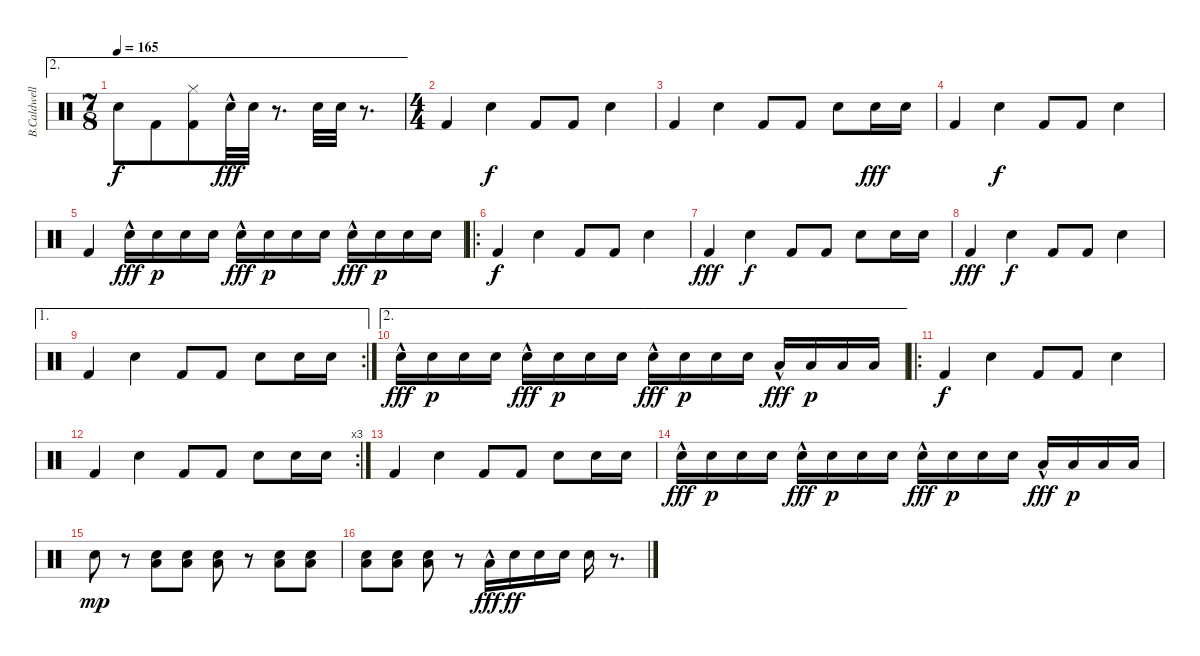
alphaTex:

\track ("B.Caldwell" "B.Caldwell") {instrument percussion}
\staff {score}
\articulation defaults
\ae 2
\ts (7 8)
\tempo 165
\clef neutral
\ks c "Snare (hit) 2".8{dy f} "Kick (hit) 2".8
("Hi-Hat (closed)" "Kick (hit) 2").8 "Snare (hit) 2"{hac}.32{dy fff} "Snare (hit) 2".32 r.8{d} "Snare (hit) 2".32 "Snare (hit) 2".32 r.8{d} |
\ts (4 4)
"Kick (hit) 2".4 "Snare (hit) 2".4{dy f} "Kick (hit) 2".8 "Kick (hit) 2".8 "Snare (hit) 2".4 |
"Kick (hit) 2".4 "Snare (hit) 2".4 "Kick (hit) 2".8 "Kick (hit) 2".8 "Snare (hit) 2".8 "Snare (hit) 2".16{dy fff} "Snare (hit) 2".16 |
"Kick (hit) 2".4 "Snare (hit) 2".4{dy f} "Kick (hit) 2".8 "Kick (hit) 2".8 "Snare (hit) 2".4 |
"Kick (hit) 2".4 "Snare (hit) 2"{hac}.16{dy fff} "Snare (hit) 2".16{dy p} "Snare (hit) 2".16 "Snare (hit) 2".16 "Snare (hit) 2"{hac}.16{dy fff} "Snare (hit) 2".16{dy p} "Snare (hit) 2".16 "Snare (hit) 2".16 "Snare (hit) 2"{hac}.16{dy fff} "Snare (hit) 2".16{dy p} "Snare (hit) 2".16 "Snare (hit) 2".16 |
\ro "Kick (hit) 2".4{dy f} "Snare (hit) 2".4 "Kick (hit) 2".8 "Kick (hit) 2".8 "Snare (hit) 2".4
|
"Kick (hit) 2".4{dy fff} "Snare (hit) 2".4{dy f} "Kick (hit) 2".8 "Kick (hit) 2".8 "Snare (hit) 2".8 "Snare (hit) 2".16 "Snare (hit) 2".16 |
"Kick (hit) 2".4{dy fff} "Snare (hit) 2".4{dy f} "Kick (hit) 2".8 "Kick (hit) 2".8 "Snare (hit) 2".4 |
\ae 1
\rc 2 "Kick (hit) 2".4 "Snare (hit) 2".4 "Kick (hit) 2".8 "Kick (hit) 2".8 "Snare (hit) 2".8 "Snare (hit) 2".16 "Snare (hit) 2".16
|
\ae 2 "Snare (hit) 2"{hac}.16{dy fff} "Snare (hit) 2".16{dy p} "Snare (hit) 2".16 "Snare (hit) 2".16 "Snare (hit) 2"{hac}.16{dy fff} "Snare (hit) 2".16{dy p} "Snare (hit) 2".16 "Snare (hit) 2".16 "Snare (hit) 2"{hac}.16{dy fff} "Snare (hit) 2".16{dy p} "Snare (hit) 2".16 "Snare (hit) 2".16 "Low Tom (hit)"{hac}.16{dy fff} "Low Tom (hit)".16{dy p} "Low Tom (hit)".16 "Low Tom (hit)".16
|
\ro "Kick (hit) 2".4{dy f} "Snare (hit) 2".4 "Kick (hit) 2".8 "Kick (hit) 2".8 "Snare (hit) 2".4
|
\rc 3 "Kick (hit) 2".4 "Snare (hit) 2".4 "Kick (hit) 2".8 "Kick (hit) 2".8 "Snare (hit) 2".8 "Snare (hit) 2".16 "Snare (hit) 2".16
|
"Kick (hit) 2".4 "Snare (hit) 2".4 "Kick (hit) 2".8 "Kick (hit) 2".8 "Snare (hit) 2".8 "Snare (hit) 2".16 "Snare (hit) 2".16 |
"Snare (hit) 2"{hac}.16{dy fff} "Snare (hit) 2".16{dy p} "Snare (hit) 2".16 "Snare (hit) 2".16 "Snare (hit) 2"{hac}.16{dy fff} "Snare (hit) 2".16{dy p} "Snare (hit) 2".16 "Snare (hit) 2".16 "Snare (hit) 2"{hac}.16{dy fff} "Snare (hit) 2".16{dy p} "Snare (hit) 2".16 "Snare (hit) 2".16 "Low Tom (hit)"{hac}.16{dy fff} "Low Tom (hit)".16{dy p} "Low Tom (hit)".16 "Low Tom (hit)".16 |
"Snare (hit) 2".8{dy mp} r.8 ("Low Floor Tom (hit)" "Snare (hit) 2").8 ("Low Floor Tom (hit)" "Snare (hit) 2").8 ("Low Floor Tom (hit)" "Snare (hit) 2").8 r.8 ("Low Floor Tom (hit)" "Snare (hit) 2").8 ("Low Floor Tom (hit)" "Snare (hit) 2").8 |
("Low Floor Tom (hit)" "Snare (hit) 2").8 ("Low Floor Tom (hit)" "Snare (hit) 2").8 ("Low Floor Tom (hit)" "Snare (hit) 2").8 r.8 "Low Tom (hit)"{hac}.16{dy fff} "Snare (hit) 2".16{dy ff} "Snare (hit) 2".16 "Snare (hit) 2".16 "Snare (hit) 2".16 r.8{d}
